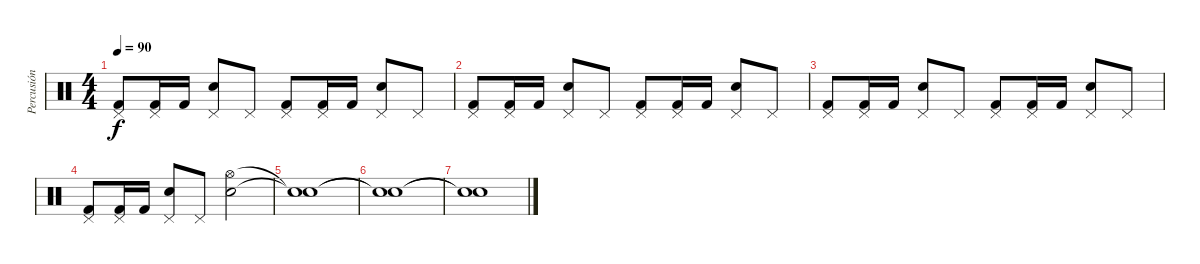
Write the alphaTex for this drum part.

\track ("Percusión" "Percusión") {instrument percussion}
\staff
\articulation defaults
\ts (4 4)
\tempo 90
\clef neutral
\ks c
("Kick (hit) 2" "Pedal Hi-Hat (hit)").8{dy f} ("Kick (hit) 2" "Pedal Hi-Hat (hit)").16 "Kick (hit) 2".16 ("Electric Snare (hit)" "Pedal Hi-Hat (hit)").8 "Pedal Hi-Hat (hit)".8 ("Kick (hit) 2" "Pedal Hi-Hat (hit)").8 ("Kick (hit) 2" "Pedal Hi-Hat (hit)").16 "Kick (hit) 2".16 ("Electric Snare (hit)" "Pedal Hi-Hat (hit)").8 "Pedal Hi-Hat (hit)".8 |
("Kick (hit) 2" "Pedal Hi-Hat (hit)").8 ("Kick (hit) 2" "Pedal Hi-Hat (hit)").16 "Kick (hit) 2".16 ("Electric Snare (hit)" "Pedal Hi-Hat (hit)").8 "Pedal Hi-Hat (hit)".8 ("Kick (hit) 2" "Pedal Hi-Hat (hit)").8 ("Kick (hit) 2" "Pedal Hi-Hat (hit)").16 "Kick (hit) 2".16 ("Electric Snare (hit)" "Pedal Hi-Hat (hit)").8 "Pedal Hi-Hat (hit)".8 |
("Kick (hit) 2" "Pedal Hi-Hat (hit)").8 ("Kick (hit) 2" "Pedal Hi-Hat (hit)").16 "Kick (hit) 2".16 ("Electric Snare (hit)" "Pedal Hi-Hat (hit)").8 "Pedal Hi-Hat (hit)".8 ("Kick (hit) 2" "Pedal Hi-Hat (hit)").8 ("Kick (hit) 2" "Pedal Hi-Hat (hit)").16 "Kick (hit) 2".16 ("Electric Snare (hit)" "Pedal Hi-Hat (hit)").8 "Pedal Hi-Hat (hit)".8 |
("Kick (hit) 2" "Pedal Hi-Hat (hit)").8 ("Kick (hit) 2" "Pedal Hi-Hat (hit)").16 "Kick (hit) 2".16 ("Electric Snare (hit)" "Pedal Hi-Hat (hit)").8 "Pedal Hi-Hat (hit)".8 ("Electric Snare (hit)" "Hi-Hat (open)").2 |
("Snare (hit)"{t} "Snare (hit)"{t}).1 |
("Snare (hit)"{t} "Snare (hit)"{t}).1 |
("Snare (hit)"{t} "Snare (hit)"{t}).1
